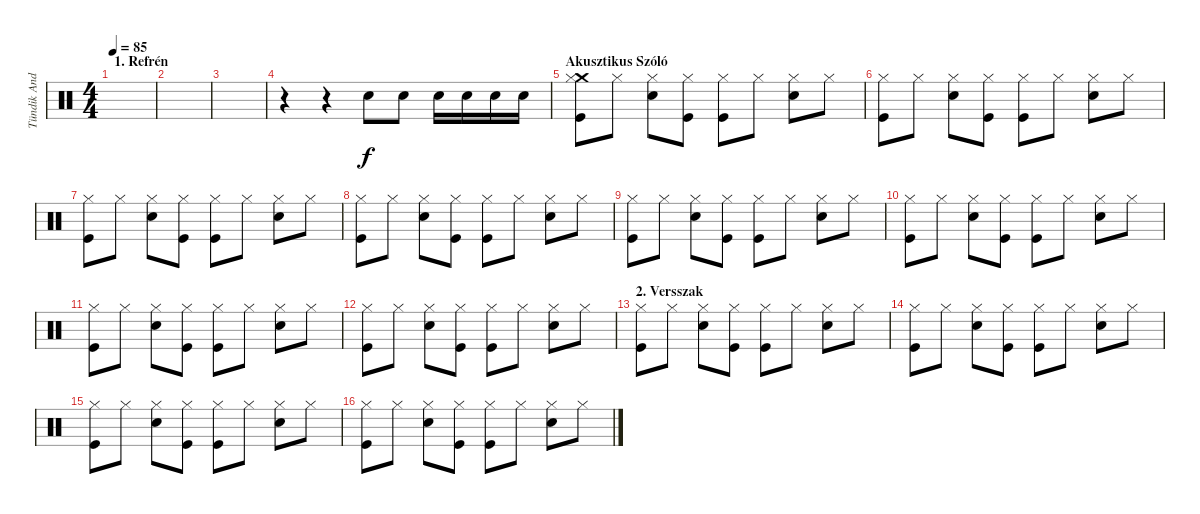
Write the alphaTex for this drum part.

\track ("Tündik András - Dob" "Tündik And") {instrument percussion}
\staff {score}
\articulation defaults
\ts (4 4)
\section ("" "1. Refrén")
\tempo 85
\clef neutral
\ks c
|
|
|
r.4 r.4 "Snare (hit) 2".8 "Snare (hit) 2".8 "Snare (hit) 2".16 "Snare (hit) 2".16 "Snare (hit) 2".16 "Snare (hit) 2".16 |
\section ("" "Akusztikus Szóló")
("Crash medium (hit)" "Hi-Hat (closed)" "Kick (hit)").8 "Hi-Hat (closed)".8 ("Snare (hit) 2" "Hi-Hat (closed)").8 ("Hi-Hat (closed)" "Kick (hit)").8 ("Hi-Hat (closed)" "Kick (hit)").8 "Hi-Hat (closed)".8 ("Snare (hit) 2" "Hi-Hat (closed)").8 "Hi-Hat (closed)".8 |
("Hi-Hat (closed)" "Kick (hit)").8 "Hi-Hat (closed)".8 ("Snare (hit) 2" "Hi-Hat (closed)").8 ("Hi-Hat (closed)" "Kick (hit)").8 ("Hi-Hat (closed)" "Kick (hit)").8 "Hi-Hat (closed)".8 ("Snare (hit) 2" "Hi-Hat (closed)").8 "Hi-Hat (closed)".8 |
("Hi-Hat (closed)" "Kick (hit)").8 "Hi-Hat (closed)".8 ("Snare (hit) 2" "Hi-Hat (closed)").8 ("Hi-Hat (closed)" "Kick (hit)").8 ("Hi-Hat (closed)" "Kick (hit)").8 "Hi-Hat (closed)".8 ("Snare (hit) 2" "Hi-Hat (closed)").8 "Hi-Hat (closed)".8 |
("Hi-Hat (closed)" "Kick (hit)").8 "Hi-Hat (closed)".8 ("Snare (hit) 2" "Hi-Hat (closed)").8 ("Hi-Hat (closed)" "Kick (hit)").8 ("Hi-Hat (closed)" "Kick (hit)").8 "Hi-Hat (closed)".8 ("Snare (hit) 2" "Hi-Hat (closed)").8 "Hi-Hat (closed)".8 |
("Hi-Hat (closed)" "Kick (hit)").8 "Hi-Hat (closed)".8 ("Snare (hit) 2" "Hi-Hat (closed)").8 ("Hi-Hat (closed)" "Kick (hit)").8 ("Hi-Hat (closed)" "Kick (hit)").8 "Hi-Hat (closed)".8 ("Snare (hit) 2" "Hi-Hat (closed)").8 "Hi-Hat (closed)".8 |
("Hi-Hat (closed)" "Kick (hit)").8 "Hi-Hat (closed)".8 ("Snare (hit) 2" "Hi-Hat (closed)").8 ("Hi-Hat (closed)" "Kick (hit)").8 ("Hi-Hat (closed)" "Kick (hit)").8 "Hi-Hat (closed)".8 ("Snare (hit) 2" "Hi-Hat (closed)").8 "Hi-Hat (closed)".8 |
("Hi-Hat (closed)" "Kick (hit)").8 "Hi-Hat (closed)".8 ("Snare (hit) 2" "Hi-Hat (closed)").8 ("Hi-Hat (closed)" "Kick (hit)").8 ("Hi-Hat (closed)" "Kick (hit)").8 "Hi-Hat (closed)".8 ("Snare (hit) 2" "Hi-Hat (closed)").8 "Hi-Hat (closed)".8 |
("Hi-Hat (closed)" "Kick (hit)").8 "Hi-Hat (closed)".8 ("Snare (hit) 2" "Hi-Hat (closed)").8 ("Hi-Hat (closed)" "Kick (hit)").8 ("Hi-Hat (closed)" "Kick (hit)").8 "Hi-Hat (closed)".8 ("Snare (hit) 2" "Hi-Hat (closed)").8 "Hi-Hat (closed)".8 |
\section ("" "2. Versszak")
("Hi-Hat (closed)" "Kick (hit)").8 "Hi-Hat (closed)".8 ("Snare (hit) 2" "Hi-Hat (closed)").8 ("Hi-Hat (closed)" "Kick (hit)").8 ("Hi-Hat (closed)" "Kick (hit)").8 "Hi-Hat (closed)".8 ("Snare (hit) 2" "Hi-Hat (closed)").8 "Hi-Hat (closed)".8 |
("Hi-Hat (closed)" "Kick (hit)").8 "Hi-Hat (closed)".8 ("Snare (hit) 2" "Hi-Hat (closed)").8 ("Hi-Hat (closed)" "Kick (hit)").8 ("Hi-Hat (closed)" "Kick (hit)").8 "Hi-Hat (closed)".8 ("Snare (hit) 2" "Hi-Hat (closed)").8 "Hi-Hat (closed)".8 |
("Hi-Hat (closed)" "Kick (hit)").8 "Hi-Hat (closed)".8 ("Snare (hit) 2" "Hi-Hat (closed)").8 ("Hi-Hat (closed)" "Kick (hit)").8 ("Hi-Hat (closed)" "Kick (hit)").8 "Hi-Hat (closed)".8 ("Snare (hit) 2" "Hi-Hat (closed)").8 "Hi-Hat (closed)".8 |
("Hi-Hat (closed)" "Kick (hit)").8 "Hi-Hat (closed)".8 ("Snare (hit) 2" "Hi-Hat (closed)").8 ("Hi-Hat (closed)" "Kick (hit)").8 ("Hi-Hat (closed)" "Kick (hit)").8 "Hi-Hat (closed)".8 ("Snare (hit) 2" "Hi-Hat (closed)").8 "Hi-Hat (closed)".8
